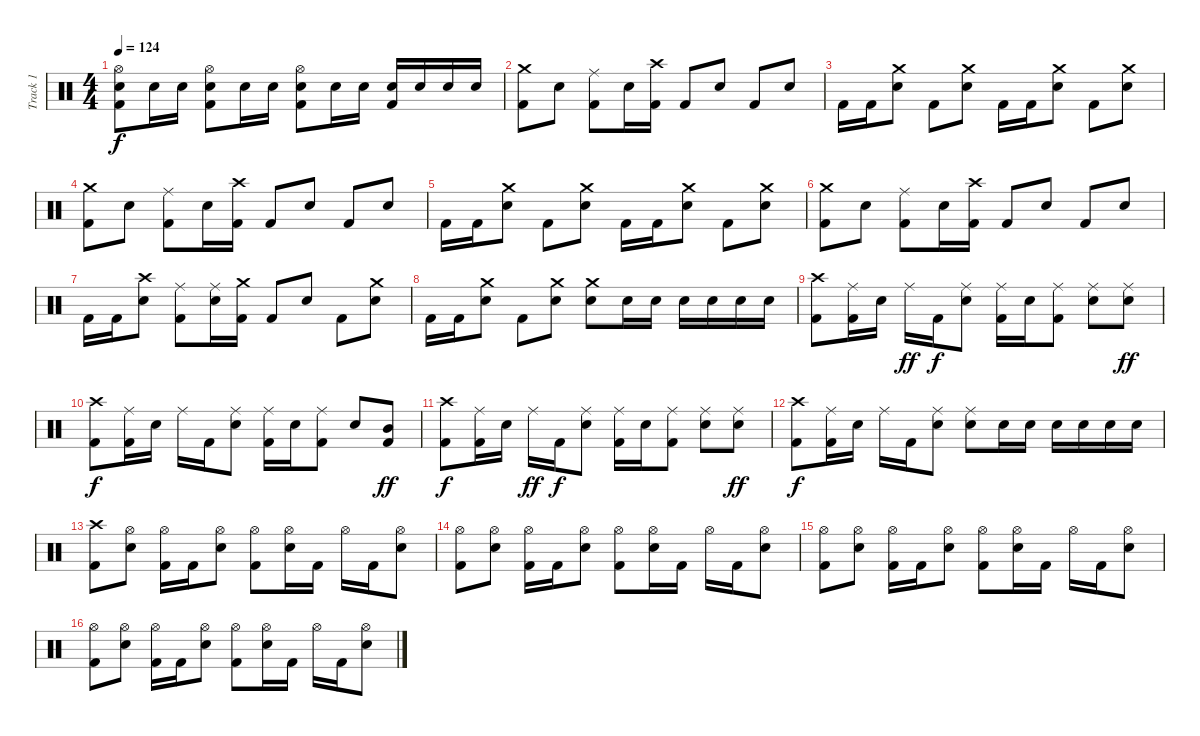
\track ("Track 1" "Track 1") {instrument percussion}
\staff {score}
\articulation defaults
\ts (4 4)
\tempo 124
\clef neutral
\ks c
("Hi-Hat (open)" "Electric Snare (hit)" "Kick (hit) 2").8{dy f} "Electric Snare (hit)".16 "Electric Snare (hit)".16 ("Hi-Hat (open)" "Electric Snare (hit)" "Kick (hit) 2").8 "Electric Snare (hit)".16 "Electric Snare (hit)".16 ("Hi-Hat (open)" "Electric Snare (hit)" "Kick (hit) 2").8 "Electric Snare (hit)".16 "Electric Snare (hit)".16 ("Electric Snare (hit)" "Kick (hit) 2").16 "Electric Snare (hit)".16 "Electric Snare (hit)".16 "Electric Snare (hit)".16 |
("Crash medium (hit)" "Kick (hit) 2").8 "Electric Snare (hit)".8 ("Ride (middle)" "Kick (hit) 2").8 "Electric Snare (hit)".16 ("Crash high (hit)" "Kick (hit) 2").16 "Kick (hit) 2".8 "Electric Snare (hit)".8 "Kick (hit) 2".8 "Electric Snare (hit)".8 |
"Kick (hit) 2".16 "Kick (hit) 2".16 ("Crash medium (hit)" "Electric Snare (hit)").8 "Kick (hit) 2".8 ("Crash medium (hit)" "Electric Snare (hit)").8 "Kick (hit) 2".16 "Kick (hit) 2".16 ("Crash medium (hit)" "Electric Snare (hit)").8 "Kick (hit) 2".8 ("Crash medium (hit)" "Electric Snare (hit)").8 |
("Crash medium (hit)" "Kick (hit) 2").8 "Electric Snare (hit)".8 ("Ride (middle)" "Kick (hit) 2").8 "Electric Snare (hit)".16 ("Crash high (hit)" "Kick (hit) 2").16 "Kick (hit) 2".8 "Electric Snare (hit)".8 "Kick (hit) 2".8 "Electric Snare (hit)".8 |
"Kick (hit) 2".16 "Kick (hit) 2".16 ("Crash medium (hit)" "Electric Snare (hit)").8 "Kick (hit) 2".8 ("Crash medium (hit)" "Electric Snare (hit)").8 "Kick (hit) 2".16 "Kick (hit) 2".16 ("Crash medium (hit)" "Electric Snare (hit)").8 "Kick (hit) 2".8 ("Crash medium (hit)" "Electric Snare (hit)").8 |
("Crash medium (hit)" "Kick (hit) 2").8 "Electric Snare (hit)".8 ("Ride (middle)" "Kick (hit) 2").8 "Electric Snare (hit)".16 ("Crash high (hit)" "Kick (hit) 2").16 "Kick (hit) 2".8 "Electric Snare (hit)".8 "Kick (hit) 2".8 "Electric Snare (hit)".8 |
"Kick (hit) 2".16 "Kick (hit) 2".16 ("Crash high (hit)" "Electric Snare (hit)").8 ("Ride (middle)" "Kick (hit) 2").8 ("Ride (middle)" "Electric Snare (hit)").16 ("Crash medium (hit)" "Kick (hit) 2").16 "Kick (hit) 2".8 "Electric Snare (hit)".8 "Kick (hit) 2".8 ("Crash medium (hit)" "Electric Snare (hit)").8 |
"Kick (hit) 2".16 "Kick (hit) 2".16 ("Crash medium (hit)" "Electric Snare (hit)").8 "Kick (hit) 2".8 ("Crash medium (hit)" "Electric Snare (hit)").8 ("Crash medium (hit)" "Electric Snare (hit)").8 "Electric Snare (hit)".16 "Electric Snare (hit)".16 "Electric Snare (hit)".16 "Electric Snare (hit)".16 "Electric Snare (hit)".16 "Electric Snare (hit)".16 |
("Crash high (hit)" "Kick (hit) 2").8 ("Ride (middle)" "Kick (hit) 2").16 "Electric Snare (hit)".16 "Ride (middle)".16{dy ff} "Kick (hit) 2".16{dy f} ("Ride (middle)" "Electric Snare (hit)").8 ("Ride (middle)" "Kick (hit) 2").16 "Electric Snare (hit)".16 ("Ride (middle)" "Kick (hit) 2").8 ("Ride (middle)" "Electric Snare (hit)").8 ("Ride (middle)" "Electric Snare (hit)").8{dy ff} |
("Crash high (hit)" "Kick (hit) 2").8{dy f} ("Ride (middle)" "Kick (hit) 2").16 "Electric Snare (hit)".16 "Ride (middle)".16 "Kick (hit) 2".16 ("Ride (middle)" "Electric Snare (hit)").8 ("Ride (middle)" "Kick (hit) 2").16 "Electric Snare (hit)".16 ("Ride (middle)" "Kick (hit) 2").8 "Electric Snare (hit)".8 ("Mid Tom (hit)" "Kick (hit) 2").8{dy ff} |
("Crash high (hit)" "Kick (hit) 2").8{dy f} ("Ride (middle)" "Kick (hit) 2").16 "Electric Snare (hit)".16 "Ride (middle)".16{dy ff} "Kick (hit) 2".16{dy f} ("Ride (middle)" "Electric Snare (hit)").8 ("Ride (middle)" "Kick (hit) 2").16 "Electric Snare (hit)".16 ("Ride (middle)" "Kick (hit) 2").8 ("Ride (middle)" "Electric Snare (hit)").8 ("Ride (middle)" "Electric Snare (hit)").8{dy ff} |
("Crash high (hit)" "Kick (hit) 2").8{dy f} ("Ride (middle)" "Kick (hit) 2").16 "Electric Snare (hit)".16 "Ride (middle)".16 "Kick (hit) 2".16 ("Ride (middle)" "Electric Snare (hit)").8 ("Ride (middle)" "Electric Snare (hit)").8 "Electric Snare (hit)".16 "Electric Snare (hit)".16 "Electric Snare (hit)".16 "Electric Snare (hit)".16 "Electric Snare (hit)".16 "Electric Snare (hit)".16 |
("Crash high (hit)" "Kick (hit) 2").8 ("Hi-Hat (open)" "Electric Snare (hit)").8 ("Hi-Hat (open)" "Kick (hit) 2").16 "Kick (hit) 2".16 ("Hi-Hat (open)" "Electric Snare (hit)").8 ("Hi-Hat (open)" "Kick (hit) 2").8 ("Hi-Hat (open)" "Electric Snare (hit)").16 "Kick (hit) 2".16 "Hi-Hat (open)".16 "Kick (hit) 2".16 ("Hi-Hat (open)" "Electric Snare (hit)").8 |
("Hi-Hat (open)" "Kick (hit) 2").8 ("Hi-Hat (open)" "Electric Snare (hit)").8 ("Hi-Hat (open)" "Kick (hit) 2").16 "Kick (hit) 2".16 ("Hi-Hat (open)" "Electric Snare (hit)").8 ("Hi-Hat (open)" "Kick (hit) 2").8 ("Hi-Hat (open)" "Electric Snare (hit)").16 "Kick (hit) 2".16 "Hi-Hat (open)".16 "Kick (hit) 2".16 ("Hi-Hat (open)" "Electric Snare (hit)").8 |
("Hi-Hat (open)" "Kick (hit) 2").8 ("Hi-Hat (open)" "Electric Snare (hit)").8 ("Hi-Hat (open)" "Kick (hit) 2").16 "Kick (hit) 2".16 ("Hi-Hat (open)" "Electric Snare (hit)").8 ("Hi-Hat (open)" "Kick (hit) 2").8 ("Hi-Hat (open)" "Electric Snare (hit)").16 "Kick (hit) 2".16 "Hi-Hat (open)".16 "Kick (hit) 2".16 ("Hi-Hat (open)" "Electric Snare (hit)").8 |
("Hi-Hat (open)" "Kick (hit) 2").8 ("Hi-Hat (open)" "Electric Snare (hit)").8 ("Hi-Hat (open)" "Kick (hit) 2").16 "Kick (hit) 2".16 ("Hi-Hat (open)" "Electric Snare (hit)").8 ("Hi-Hat (open)" "Kick (hit) 2").8 ("Hi-Hat (open)" "Electric Snare (hit)").16 "Kick (hit) 2".16 "Hi-Hat (open)".16 "Kick (hit) 2".16 ("Hi-Hat (open)" "Electric Snare (hit)").8
